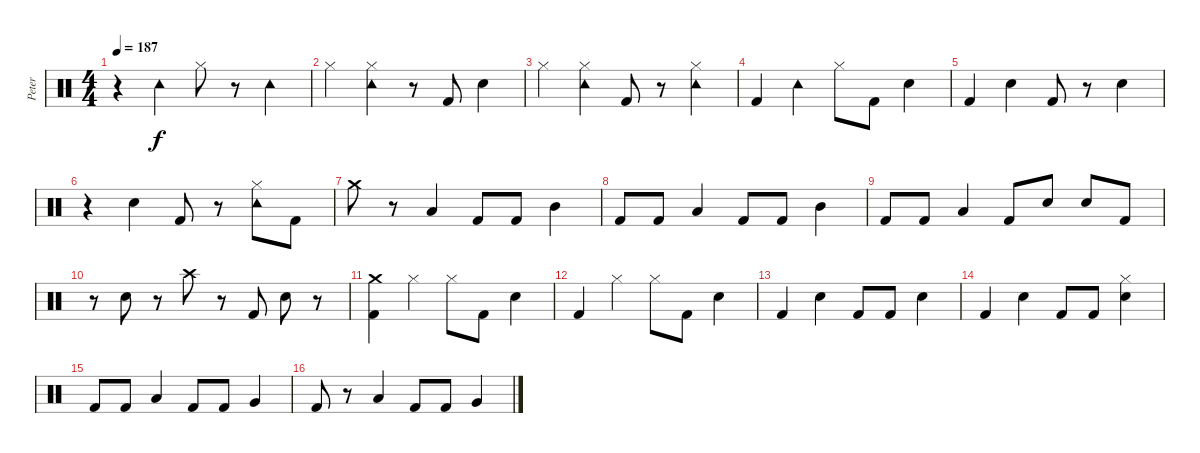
\track ("Peter" "Peter") {instrument percussion}
\staff {score}
\articulation defaults
\ts (4 4)
\tempo 187
\clef neutral
\ks c
r.4{dy f} "Tambourine (hit)".4 "Hi-Hat (closed)".8 r.8 "Tambourine (hit)".4 |
"Hi-Hat (closed)".4 ("Hi-Hat (closed)" "Tambourine (hit)").4 r.8 "Kick (hit) 2".8 "Electric Snare (hit)".4 |
"Hi-Hat (closed)".4 ("Hi-Hat (closed)" "Tambourine (hit)").4 "Kick (hit) 2".8 r.8 ("Hi-Hat (closed)" "Tambourine (hit)").4 |
"Kick (hit) 2".4 "Tambourine (hit)".4 "Hi-Hat (closed)".8 "Kick (hit) 2".8 "Electric Snare (hit)".4 |
"Kick (hit) 2".4 "Electric Snare (hit)".4 "Kick (hit) 2".8 r.8 "Electric Snare (hit)".4 |
r.4 "Electric Snare (hit)".4 "Kick (hit) 2".8 r.8 ("Hi-Hat (closed)" "Tambourine (hit)").8 "Kick (hit) 2".8 |
"Crash medium (hit)".8 r.8 "Low Floor Tom (hit)".4 "Kick (hit) 2".8 "Kick (hit) 2".8 "Mid Tom (hit)".4 |
"Kick (hit) 2".8 "Kick (hit) 2".8 "Low Floor Tom (hit)".4 "Kick (hit) 2".8 "Kick (hit) 2".8 "Mid Tom (hit)".4 |
"Kick (hit) 2".8 "Kick (hit) 2".8 "Low Floor Tom (hit)".4 "Kick (hit) 2".8 "Electric Snare (hit)".8 "Electric Snare (hit)".8 "Kick (hit) 2".8 |
r.8 "Electric Snare (hit)".8 r.8 "Crash high (hit)".8 r.8 "Kick (hit) 2".8 "Electric Snare (hit)".8 r.8 |
("Crash medium (hit)" "Kick (hit) 2").4 "Hi-Hat (closed)".4 "Hi-Hat (closed)".8 "Kick (hit) 2".8 "Electric Snare (hit)".4 |
"Kick (hit) 2".4 "Hi-Hat (closed)".4 "Hi-Hat (closed)".8 "Kick (hit) 2".8 "Electric Snare (hit)".4 |
"Kick (hit) 2".4 "Electric Snare (hit)".4 "Kick (hit) 2".8 "Kick (hit) 2".8 "Electric Snare (hit)".4 |
"Kick (hit) 2".4 "Electric Snare (hit)".4 "Kick (hit) 2".8 "Kick (hit) 2".8 ("Hi-Hat (closed)" "Electric Snare (hit)").4 |
"Kick (hit) 2".8 "Kick (hit) 2".8 "Low Tom (hit)".4 "Kick (hit) 2".8 "Kick (hit) 2".8 "Very Low Tom (hit)".4 |
"Kick (hit) 2".8 r.8 "Low Tom (hit)".4 "Kick (hit) 2".8 "Kick (hit) 2".8 "Very Low Tom (hit)".4
